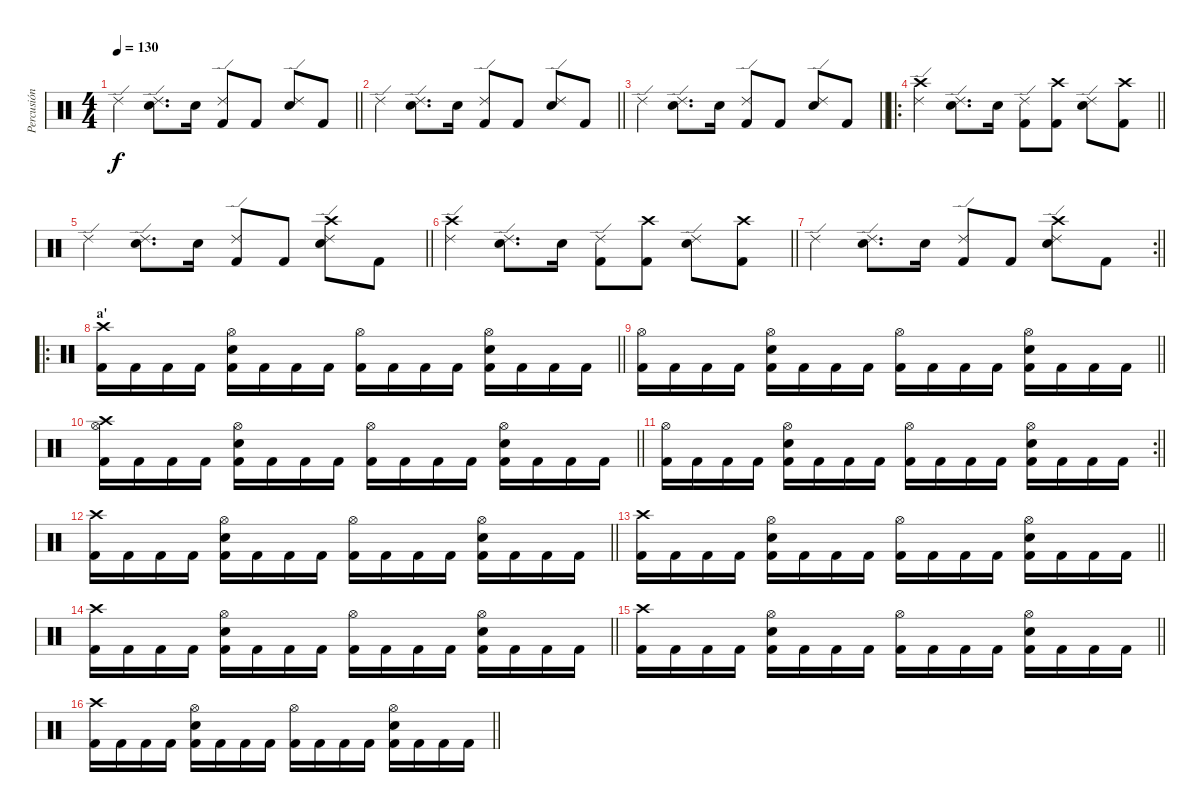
\track ("Percusión" "Percusión") {mute instrument percussion}
\staff {score}
\articulation defaults
\ts (4 4)
\tempo 130
\clef neutral
\barLineRight lightlight
\ks c "Ride (edge) 2".4{dy f}
("Snare (hit) 2" "Ride (edge) 2").8{d} "Snare (hit) 2".16 ("Kick (hit) 2" "Ride (edge) 2").8 "Kick (hit) 2".8 ("Snare (hit) 2" "Ride (edge) 2").8 "Kick (hit) 2".8 |
\barLineRight lightlight "Ride (edge) 2".4
("Snare (hit) 2" "Ride (edge) 2").8{d} "Snare (hit) 2".16 ("Kick (hit) 2" "Ride (edge) 2").8 "Kick (hit) 2".8 ("Snare (hit) 2" "Ride (edge) 2").8 "Kick (hit) 2".8 |
\barLineRight lightlight "Ride (edge) 2".4
("Snare (hit) 2" "Ride (edge) 2").8{d} "Snare (hit) 2".16 ("Kick (hit) 2" "Ride (edge) 2").8 "Kick (hit) 2".8 ("Snare (hit) 2" "Ride (edge) 2").8 "Kick (hit) 2".8 |
\ro
\barLineRight lightlight
("Ride (edge) 2" "Crash high (hit)").4 ("Snare (hit) 2" "Ride (edge) 2").8{d} "Snare (hit) 2".16 ("Kick (hit) 2" "Ride (edge) 2").8 ("Kick (hit) 2" "Crash high (hit)").8 ("Snare (hit) 2" "Ride (edge) 2").8 ("Kick (hit) 2" "Crash high (hit)").8 |
\barLineRight lightlight "Ride (edge) 2".4
("Snare (hit) 2" "Ride (edge) 2").8{d} "Snare (hit) 2".16 ("Kick (hit) 2" "Ride (edge) 2").8 "Kick (hit) 2".8 ("Snare (hit) 2" "Ride (edge) 2" "Crash high (hit)").8 "Kick (hit) 2".8 |
\barLineRight lightlight
("Ride (edge) 2" "Crash high (hit)").4 ("Snare (hit) 2" "Ride (edge) 2").8{d} "Snare (hit) 2".16 ("Kick (hit) 2" "Ride (edge) 2").8 ("Kick (hit) 2" "Crash high (hit)").8 ("Snare (hit) 2" "Ride (edge) 2").8 ("Kick (hit) 2" "Crash high (hit)").8 |
\rc 2
\barLineRight lightlight "Ride (edge) 2".4
("Snare (hit) 2" "Ride (edge) 2").8{d} "Snare (hit) 2".16 ("Kick (hit) 2" "Ride (edge) 2").8 "Kick (hit) 2".8 ("Snare (hit) 2" "Ride (edge) 2" "Crash high (hit)").8 "Kick (hit) 2".8 |
\ro
\section ("" "a'")
\barLineRight lightlight
("Kick (hit) 2" "Crash high (hit)").16 "Kick (hit) 2".16 "Kick (hit) 2".16 "Kick (hit) 2".16 ("Kick (hit) 2" "Electric Snare (hit)" "Hi-Hat (open)").16 "Kick (hit) 2".16 "Kick (hit) 2".16 "Kick (hit) 2".16 ("Kick (hit) 2" "Hi-Hat (open)").16 "Kick (hit) 2".16 "Kick (hit) 2".16 "Kick (hit) 2".16 ("Kick (hit) 2" "Electric Snare (hit)" "Hi-Hat (open)").16 "Kick (hit) 2".16 "Kick (hit) 2".16 "Kick (hit) 2".16 |
\barLineRight lightlight
("Kick (hit) 2" "Hi-Hat (open)").16 "Kick (hit) 2".16 "Kick (hit) 2".16 "Kick (hit) 2".16 ("Kick (hit) 2" "Electric Snare (hit)" "Hi-Hat (open)").16 "Kick (hit) 2".16 "Kick (hit) 2".16 "Kick (hit) 2".16 ("Kick (hit) 2" "Hi-Hat (open)").16 "Kick (hit) 2".16 "Kick (hit) 2".16 "Kick (hit) 2".16 ("Kick (hit) 2" "Electric Snare (hit)" "Hi-Hat (open)").16 "Kick (hit) 2".16 "Kick (hit) 2".16 "Kick (hit) 2".16 |
\barLineRight lightlight
("Kick (hit) 2" "Hi-Hat (open)" "Crash high (hit)").16 "Kick (hit) 2".16 "Kick (hit) 2".16 "Kick (hit) 2".16 ("Kick (hit) 2" "Electric Snare (hit)" "Hi-Hat (open)").16 "Kick (hit) 2".16 "Kick (hit) 2".16 "Kick (hit) 2".16 ("Kick (hit) 2" "Hi-Hat (open)").16 "Kick (hit) 2".16 "Kick (hit) 2".16 "Kick (hit) 2".16 ("Kick (hit) 2" "Electric Snare (hit)" "Hi-Hat (open)").16 "Kick (hit) 2".16 "Kick (hit) 2".16 "Kick (hit) 2".16 |
\rc 2
\barLineRight lightlight
("Kick (hit) 2" "Hi-Hat (open)").16 "Kick (hit) 2".16 "Kick (hit) 2".16 "Kick (hit) 2".16 ("Kick (hit) 2" "Electric Snare (hit)" "Hi-Hat (open)").16 "Kick (hit) 2".16 "Kick (hit) 2".16 "Kick (hit) 2".16 ("Kick (hit) 2" "Hi-Hat (open)").16 "Kick (hit) 2".16 "Kick (hit) 2".16 "Kick (hit) 2".16 ("Kick (hit) 2" "Electric Snare (hit)" "Hi-Hat (open)").16 "Kick (hit) 2".16 "Kick (hit) 2".16 "Kick (hit) 2".16 |
\barLineRight lightlight
("Kick (hit) 2" "Crash high (hit)").16 "Kick (hit) 2".16 "Kick (hit) 2".16 "Kick (hit) 2".16 ("Kick (hit) 2" "Electric Snare (hit)" "Hi-Hat (open)").16 "Kick (hit) 2".16 "Kick (hit) 2".16 "Kick (hit) 2".16 ("Kick (hit) 2" "Hi-Hat (open)").16 "Kick (hit) 2".16 "Kick (hit) 2".16 "Kick (hit) 2".16 ("Kick (hit) 2" "Electric Snare (hit)" "Hi-Hat (open)").16 "Kick (hit) 2".16 "Kick (hit) 2".16 "Kick (hit) 2".16 |
\barLineRight lightlight
("Kick (hit) 2" "Crash high (hit)").16 "Kick (hit) 2".16 "Kick (hit) 2".16 "Kick (hit) 2".16 ("Kick (hit) 2" "Electric Snare (hit)" "Hi-Hat (open)").16 "Kick (hit) 2".16 "Kick (hit) 2".16 "Kick (hit) 2".16 ("Kick (hit) 2" "Hi-Hat (open)").16 "Kick (hit) 2".16 "Kick (hit) 2".16 "Kick (hit) 2".16 ("Kick (hit) 2" "Electric Snare (hit)" "Hi-Hat (open)").16 "Kick (hit) 2".16 "Kick (hit) 2".16 "Kick (hit) 2".16 |
\barLineRight lightlight
("Kick (hit) 2" "Crash high (hit)").16 "Kick (hit) 2".16 "Kick (hit) 2".16 "Kick (hit) 2".16 ("Kick (hit) 2" "Electric Snare (hit)" "Hi-Hat (open)").16 "Kick (hit) 2".16 "Kick (hit) 2".16 "Kick (hit) 2".16 ("Kick (hit) 2" "Hi-Hat (open)").16 "Kick (hit) 2".16 "Kick (hit) 2".16 "Kick (hit) 2".16 ("Kick (hit) 2" "Electric Snare (hit)" "Hi-Hat (open)").16 "Kick (hit) 2".16 "Kick (hit) 2".16 "Kick (hit) 2".16 |
\barLineRight lightlight
("Kick (hit) 2" "Crash high (hit)").16 "Kick (hit) 2".16 "Kick (hit) 2".16 "Kick (hit) 2".16 ("Kick (hit) 2" "Electric Snare (hit)" "Hi-Hat (open)").16 "Kick (hit) 2".16 "Kick (hit) 2".16 "Kick (hit) 2".16 ("Kick (hit) 2" "Hi-Hat (open)").16 "Kick (hit) 2".16 "Kick (hit) 2".16 "Kick (hit) 2".16 ("Kick (hit) 2" "Electric Snare (hit)" "Hi-Hat (open)").16 "Kick (hit) 2".16 "Kick (hit) 2".16 "Kick (hit) 2".16 |
\barLineRight lightlight
("Kick (hit) 2" "Crash high (hit)").16 "Kick (hit) 2".16 "Kick (hit) 2".16 "Kick (hit) 2".16 ("Kick (hit) 2" "Electric Snare (hit)" "Hi-Hat (open)").16 "Kick (hit) 2".16 "Kick (hit) 2".16 "Kick (hit) 2".16 ("Kick (hit) 2" "Hi-Hat (open)").16 "Kick (hit) 2".16 "Kick (hit) 2".16 "Kick (hit) 2".16 ("Kick (hit) 2" "Electric Snare (hit)" "Hi-Hat (open)").16 "Kick (hit) 2".16 "Kick (hit) 2".16 "Kick (hit) 2".16
